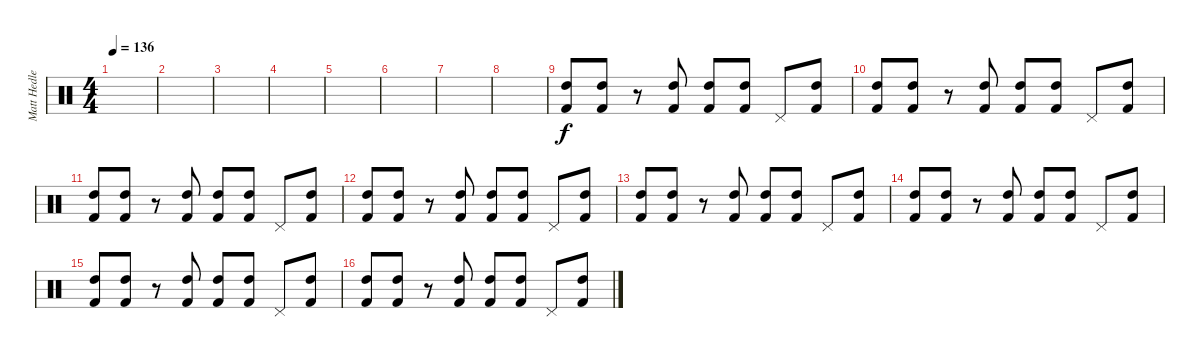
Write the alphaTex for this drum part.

\track ("Matt Hedlers" "Matt Hedle") {instrument percussion}
\staff {score}
\articulation defaults
\ts (4 4)
\tempo 136
\clef neutral
\ks c
|
|
|
|
|
|
|
|
("High Tom (hit)" "Kick (hit) 2").8 ("High Tom (hit)" "Kick (hit) 2").8 r.8 ("High Tom (hit)" "Kick (hit) 2").8 ("High Tom (hit)" "Kick (hit) 2").8 ("High Tom (hit)" "Kick (hit) 2").8 "Pedal Hi-Hat (hit)".8 ("High Tom (hit)" "Kick (hit) 2").8 |
("High Tom (hit)" "Kick (hit) 2").8 ("High Tom (hit)" "Kick (hit) 2").8 r.8 ("High Tom (hit)" "Kick (hit) 2").8 ("High Tom (hit)" "Kick (hit) 2").8 ("High Tom (hit)" "Kick (hit) 2").8 "Pedal Hi-Hat (hit)".8 ("High Tom (hit)" "Kick (hit) 2").8 |
("High Tom (hit)" "Kick (hit) 2").8 ("High Tom (hit)" "Kick (hit) 2").8 r.8 ("High Tom (hit)" "Kick (hit) 2").8 ("High Tom (hit)" "Kick (hit) 2").8 ("High Tom (hit)" "Kick (hit) 2").8 "Pedal Hi-Hat (hit)".8 ("High Tom (hit)" "Kick (hit) 2").8 |
("High Tom (hit)" "Kick (hit) 2").8 ("High Tom (hit)" "Kick (hit) 2").8 r.8 ("High Tom (hit)" "Kick (hit) 2").8 ("High Tom (hit)" "Kick (hit) 2").8 ("High Tom (hit)" "Kick (hit) 2").8 "Pedal Hi-Hat (hit)".8 ("High Tom (hit)" "Kick (hit) 2").8 |
("High Tom (hit)" "Kick (hit) 2").8 ("High Tom (hit)" "Kick (hit) 2").8 r.8 ("High Tom (hit)" "Kick (hit) 2").8 ("High Tom (hit)" "Kick (hit) 2").8 ("High Tom (hit)" "Kick (hit) 2").8 "Pedal Hi-Hat (hit)".8 ("High Tom (hit)" "Kick (hit) 2").8 |
("High Tom (hit)" "Kick (hit) 2").8 ("High Tom (hit)" "Kick (hit) 2").8 r.8 ("High Tom (hit)" "Kick (hit) 2").8 ("High Tom (hit)" "Kick (hit) 2").8 ("High Tom (hit)" "Kick (hit) 2").8 "Pedal Hi-Hat (hit)".8 ("High Tom (hit)" "Kick (hit) 2").8 |
("High Tom (hit)" "Kick (hit) 2").8 ("High Tom (hit)" "Kick (hit) 2").8 r.8 ("High Tom (hit)" "Kick (hit) 2").8 ("High Tom (hit)" "Kick (hit) 2").8 ("High Tom (hit)" "Kick (hit) 2").8 "Pedal Hi-Hat (hit)".8 ("High Tom (hit)" "Kick (hit) 2").8 |
("High Tom (hit)" "Kick (hit) 2").8 ("High Tom (hit)" "Kick (hit) 2").8 r.8 ("High Tom (hit)" "Kick (hit) 2").8 ("High Tom (hit)" "Kick (hit) 2").8 ("High Tom (hit)" "Kick (hit) 2").8 "Pedal Hi-Hat (hit)".8 ("High Tom (hit)" "Kick (hit) 2").8
